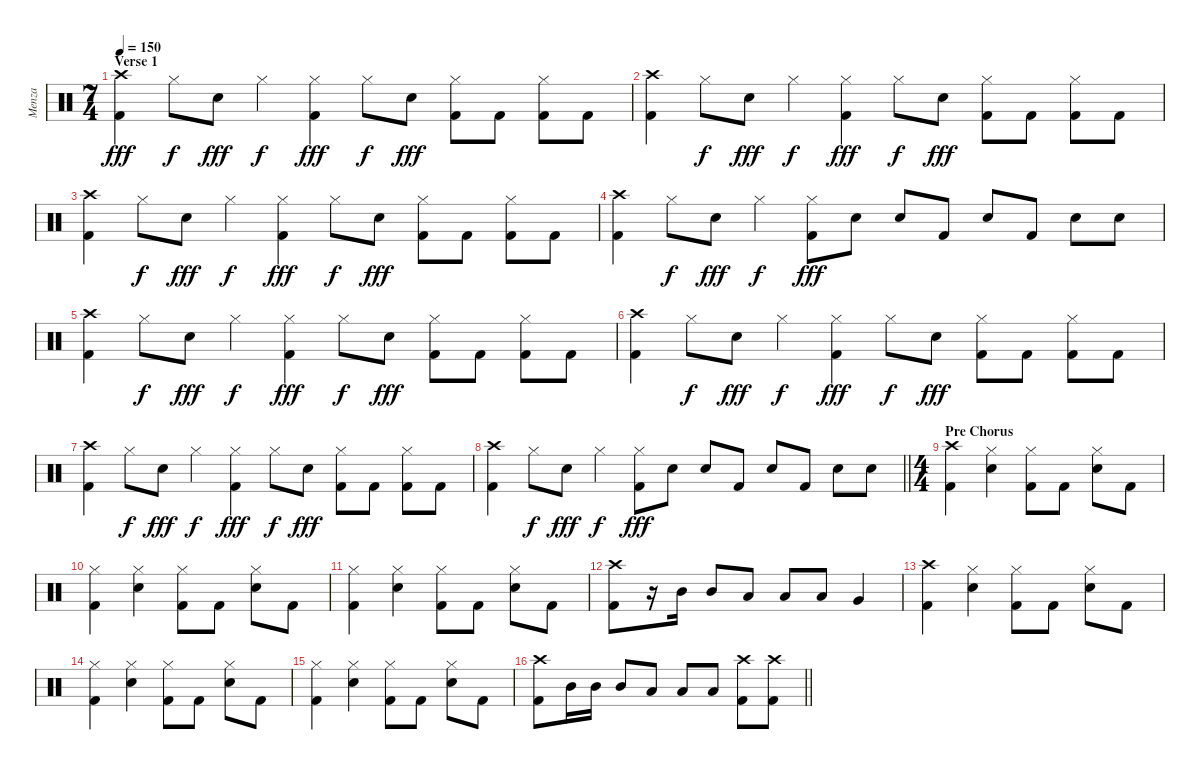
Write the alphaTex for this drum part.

\track ("Menza" "Menza") {instrument percussion}
\staff {score}
\articulation defaults
\ts (7 4)
\section ("" "Verse 1")
\tempo 150
\clef neutral
\ks c
("Crash high (hit)" "Kick (hit) 2").4{dy fff} "Hi-Hat (closed)".8{dy f} "Snare (hit) 2".8{dy fff} "Hi-Hat (closed)".4{dy f} ("Hi-Hat (closed)" "Kick (hit) 2").4{dy fff} "Hi-Hat (closed)".8{dy f} "Snare (hit) 2".8{dy fff} ("Hi-Hat (closed)" "Kick (hit) 2").8 "Kick (hit) 2".8 ("Hi-Hat (closed)" "Kick (hit) 2").8 "Kick (hit) 2".8 |
("Crash high (hit)" "Kick (hit) 2").4 "Hi-Hat (closed)".8{dy f} "Snare (hit) 2".8{dy fff} "Hi-Hat (closed)".4{dy f} ("Hi-Hat (closed)" "Kick (hit) 2").4{dy fff} "Hi-Hat (closed)".8{dy f} "Snare (hit) 2".8{dy fff} ("Hi-Hat (closed)" "Kick (hit) 2").8 "Kick (hit) 2".8 ("Hi-Hat (closed)" "Kick (hit) 2").8 "Kick (hit) 2".8 |
("Crash high (hit)" "Kick (hit) 2").4 "Hi-Hat (closed)".8{dy f} "Snare (hit) 2".8{dy fff} "Hi-Hat (closed)".4{dy f} ("Hi-Hat (closed)" "Kick (hit) 2").4{dy fff} "Hi-Hat (closed)".8{dy f} "Snare (hit) 2".8{dy fff} ("Hi-Hat (closed)" "Kick (hit) 2").8 "Kick (hit) 2".8 ("Hi-Hat (closed)" "Kick (hit) 2").8 "Kick (hit) 2".8 |
("Crash high (hit)" "Kick (hit) 2").4 "Hi-Hat (closed)".8{dy f} "Snare (hit) 2".8{dy fff} "Hi-Hat (closed)".4{dy f} ("Hi-Hat (closed)" "Kick (hit) 2").8{dy fff} "Snare (hit) 2".8 "Snare (hit) 2".8 "Kick (hit) 2".8 "Snare (hit) 2".8 "Kick (hit) 2".8 "Snare (hit) 2".8 "Snare (hit) 2".8 |
("Crash high (hit)" "Kick (hit) 2").4 "Hi-Hat (closed)".8{dy f} "Snare (hit) 2".8{dy fff} "Hi-Hat (closed)".4{dy f} ("Hi-Hat (closed)" "Kick (hit) 2").4{dy fff} "Hi-Hat (closed)".8{dy f} "Snare (hit) 2".8{dy fff} ("Hi-Hat (closed)" "Kick (hit) 2").8 "Kick (hit) 2".8 ("Hi-Hat (closed)" "Kick (hit) 2").8 "Kick (hit) 2".8 |
("Crash high (hit)" "Kick (hit) 2").4 "Hi-Hat (closed)".8{dy f} "Snare (hit) 2".8{dy fff} "Hi-Hat (closed)".4{dy f} ("Hi-Hat (closed)" "Kick (hit) 2").4{dy fff} "Hi-Hat (closed)".8{dy f} "Snare (hit) 2".8{dy fff} ("Hi-Hat (closed)" "Kick (hit) 2").8 "Kick (hit) 2".8 ("Hi-Hat (closed)" "Kick (hit) 2").8 "Kick (hit) 2".8 |
("Crash high (hit)" "Kick (hit) 2").4 "Hi-Hat (closed)".8{dy f} "Snare (hit) 2".8{dy fff} "Hi-Hat (closed)".4{dy f} ("Hi-Hat (closed)" "Kick (hit) 2").4{dy fff} "Hi-Hat (closed)".8{dy f} "Snare (hit) 2".8{dy fff} ("Hi-Hat (closed)" "Kick (hit) 2").8 "Kick (hit) 2".8 ("Hi-Hat (closed)" "Kick (hit) 2").8 "Kick (hit) 2".8 |
\barLineRight lightlight
("Crash high (hit)" "Kick (hit) 2").4 "Hi-Hat (closed)".8{dy f} "Snare (hit) 2".8{dy fff} "Hi-Hat (closed)".4{dy f} ("Hi-Hat (closed)" "Kick (hit) 2").8{dy fff} "Snare (hit) 2".8 "Snare (hit) 2".8 "Kick (hit) 2".8 "Snare (hit) 2".8 "Kick (hit) 2".8 "Snare (hit) 2".8 "Snare (hit) 2".8 |
\ts (4 4)
\section ("" "Pre Chorus")
("Crash high (hit)" "Kick (hit) 2").4 ("Hi-Hat (closed)" "Snare (hit) 2").4 ("Hi-Hat (closed)" "Kick (hit) 2").8 "Kick (hit) 2".8 ("Hi-Hat (closed)" "Snare (hit) 2").8 "Kick (hit) 2".8 |
("Hi-Hat (closed)" "Kick (hit) 2").4 ("Hi-Hat (closed)" "Snare (hit) 2").4 ("Hi-Hat (closed)" "Kick (hit) 2").8 "Kick (hit) 2".8 ("Hi-Hat (closed)" "Snare (hit) 2").8 "Kick (hit) 2".8 |
("Hi-Hat (closed)" "Kick (hit) 2").4 ("Hi-Hat (closed)" "Snare (hit) 2").4 ("Hi-Hat (closed)" "Kick (hit) 2").8 "Kick (hit) 2".8 ("Hi-Hat (closed)" "Snare (hit) 2").8 "Kick (hit) 2".8 |
("Crash high (hit)" "Kick (hit) 2").8 r.16 "Mid Tom (hit)".16 "Mid Tom (hit)".8 "Low Tom (hit)".8 "Low Tom (hit)".8 "Low Tom (hit)".8 "Very Low Tom (hit)".4 |
("Crash high (hit)" "Kick (hit) 2").4 ("Hi-Hat (closed)" "Snare (hit) 2").4 ("Hi-Hat (closed)" "Kick (hit) 2").8 "Kick (hit) 2".8 ("Hi-Hat (closed)" "Snare (hit) 2").8 "Kick (hit) 2".8 |
("Hi-Hat (closed)" "Kick (hit) 2").4 ("Hi-Hat (closed)" "Snare (hit) 2").4 ("Hi-Hat (closed)" "Kick (hit) 2").8 "Kick (hit) 2".8 ("Hi-Hat (closed)" "Snare (hit) 2").8 "Kick (hit) 2".8 |
("Hi-Hat (closed)" "Kick (hit) 2").4 ("Hi-Hat (closed)" "Snare (hit) 2").4 ("Hi-Hat (closed)" "Kick (hit) 2").8 "Kick (hit) 2".8 ("Hi-Hat (closed)" "Snare (hit) 2").8 "Kick (hit) 2".8 |
\barLineRight lightlight
("Crash high (hit)" "Kick (hit) 2").8 "Mid Tom (hit)".16 "Mid Tom (hit)".16 "Mid Tom (hit)".8 "Low Tom (hit)".8 "Low Tom (hit)".8 "Low Tom (hit)".8 ("Crash high (hit)" "Kick (hit) 2").8 ("Crash high (hit)" "Kick (hit) 2").8
